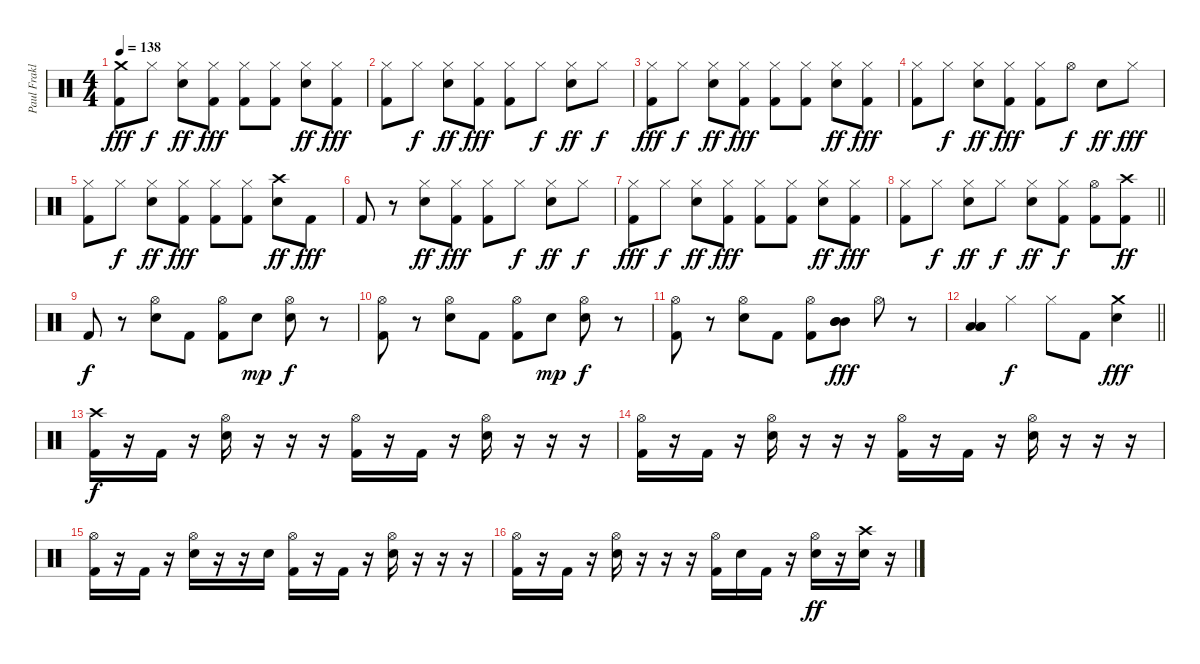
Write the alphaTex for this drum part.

\track ("Paul Fraklin Percusion" "Paul Frakl") {instrument percussion}
\staff {score}
\articulation defaults
\ts (4 4)
\tempo 138
\clef neutral
\ks c
("Crash medium (hit)" "Kick (hit) 2").8{dy fff} "Hi-Hat (closed)".8{dy f} ("Hi-Hat (closed)" "Electric Snare (hit)").8{dy ff} ("Hi-Hat (closed)" "Kick (hit) 2").8{dy fff} ("Hi-Hat (closed)" "Kick (hit) 2").8 ("Hi-Hat (closed)" "Kick (hit) 2").8 ("Hi-Hat (closed)" "Electric Snare (hit)").8{dy ff} ("Hi-Hat (closed)" "Kick (hit) 2").8{dy fff} |
("Hi-Hat (closed)" "Kick (hit) 2").8 "Hi-Hat (closed)".8{dy f} ("Hi-Hat (closed)" "Electric Snare (hit)").8{dy ff} ("Hi-Hat (closed)" "Kick (hit) 2").8{dy fff} ("Hi-Hat (closed)" "Kick (hit) 2").8 "Hi-Hat (closed)".8{dy f} ("Hi-Hat (closed)" "Electric Snare (hit)").8{dy ff} "Hi-Hat (closed)".8{dy f} |
("Hi-Hat (closed)" "Kick (hit) 2").8{dy fff} "Hi-Hat (closed)".8{dy f} ("Hi-Hat (closed)" "Electric Snare (hit)").8{dy ff} ("Hi-Hat (closed)" "Kick (hit) 2").8{dy fff} ("Hi-Hat (closed)" "Kick (hit) 2").8 ("Hi-Hat (closed)" "Kick (hit) 2").8 ("Hi-Hat (closed)" "Electric Snare (hit)").8{dy ff} ("Hi-Hat (closed)" "Kick (hit) 2").8{dy fff} |
("Hi-Hat (closed)" "Kick (hit) 2").8 "Hi-Hat (closed)".8{dy f} ("Hi-Hat (closed)" "Electric Snare (hit)").8{dy ff} ("Hi-Hat (closed)" "Kick (hit) 2").8{dy fff} ("Hi-Hat (closed)" "Kick (hit) 2").8 "Hi-Hat (open)".8{dy f} "Electric Snare (hit)".8{dy ff} "Hi-Hat (closed)".8{dy fff} |
("Hi-Hat (closed)" "Kick (hit) 2").8 "Hi-Hat (closed)".8{dy f} ("Hi-Hat (closed)" "Electric Snare (hit)").8{dy ff} ("Hi-Hat (closed)" "Kick (hit) 2").8{dy fff} ("Hi-Hat (closed)" "Kick (hit) 2").8 ("Hi-Hat (closed)" "Kick (hit) 2").8 ("Crash high (hit)" "Electric Snare (hit)").8{dy ff} "Kick (hit) 2".8{dy fff} |
"Kick (hit) 2".8 r.8 ("Hi-Hat (closed)" "Electric Snare (hit)").8{dy ff} ("Hi-Hat (closed)" "Kick (hit) 2").8{dy fff} ("Hi-Hat (closed)" "Kick (hit) 2").8 "Hi-Hat (closed)".8{dy f} ("Hi-Hat (closed)" "Electric Snare (hit)").8{dy ff} "Hi-Hat (closed)".8{dy f} |
("Hi-Hat (closed)" "Kick (hit) 2").8{dy fff} "Hi-Hat (closed)".8{dy f} ("Hi-Hat (closed)" "Electric Snare (hit)").8{dy ff} ("Hi-Hat (closed)" "Kick (hit) 2").8{dy fff} ("Hi-Hat (closed)" "Kick (hit) 2").8 ("Hi-Hat (closed)" "Kick (hit) 2").8 ("Hi-Hat (closed)" "Electric Snare (hit)").8{dy ff} ("Hi-Hat (closed)" "Kick (hit) 2").8{dy fff} |
\barLineRight lightlight
("Hi-Hat (closed)" "Kick (hit) 2").8 "Hi-Hat (closed)".8{dy f} ("Hi-Hat (closed)" "Electric Snare (hit)").8{dy ff} "Hi-Hat (closed)".8{dy f} ("Hi-Hat (closed)" "Electric Snare (hit)").8{dy ff} ("Hi-Hat (closed)" "Kick (hit) 2").8{dy f} ("Hi-Hat (open)" "Kick (hit) 2").8 ("Crash high (hit)" "Kick (hit) 2").8{dy ff} |
"Kick (hit) 2".8{dy f} r.8 ("Hi-Hat (open)" "Electric Snare (hit)").8 "Kick (hit) 2".8 ("Hi-Hat (open)" "Kick (hit) 2").8 "Electric Snare (hit)".8{dy mp} ("Hi-Hat (open)" "Electric Snare (hit)").8{dy f} r.8 |
("Hi-Hat (open)" "Kick (hit) 2").8 r.8 ("Hi-Hat (open)" "Electric Snare (hit)").8 "Kick (hit) 2".8 ("Hi-Hat (open)" "Kick (hit) 2").8 "Electric Snare (hit)".8{dy mp} ("Hi-Hat (open)" "Electric Snare (hit)").8{dy f} r.8 |
("Hi-Hat (open)" "Kick (hit) 2").8 r.8 ("Hi-Hat (open)" "Electric Snare (hit)").8 "Kick (hit) 2".8 ("Hi-Hat (open)" "Kick (hit) 2").8 ("Mid Tom (hit)" "Mid Tom (hit)" "Mid Tom (hit)").8{dy fff} "Hi-Hat (open)".8 r.8 |
\barLineRight lightlight
("Low Tom (hit)" "Low Tom (hit)" "Low Tom (hit)").4 "Hi-Hat (closed)".4{dy f} "Hi-Hat (closed)".8 "Kick (hit) 2".8 ("Crash medium (hit)" "Electric Snare (hit)").4{dy fff} |
("Crash high (hit)" "Kick (hit) 2").16{dy f} r.16 "Kick (hit) 2".16 r.16 ("Hi-Hat (open)" "Electric Snare (hit)").16 r.16 r.16 r.16 ("Hi-Hat (open)" "Kick (hit) 2").16 r.16 "Kick (hit) 2".16 r.16 ("Hi-Hat (open)" "Electric Snare (hit)").16 r.16 r.16 r.16 |
("Hi-Hat (open)" "Kick (hit) 2").16 r.16 "Kick (hit) 2".16 r.16 ("Hi-Hat (open)" "Electric Snare (hit)").16 r.16 r.16 r.16 ("Hi-Hat (open)" "Kick (hit) 2").16 r.16 "Kick (hit) 2".16 r.16 ("Hi-Hat (open)" "Electric Snare (hit)").16 r.16 r.16 r.16 |
("Hi-Hat (open)" "Kick (hit) 2").16 r.16 "Kick (hit) 2".16 r.16 ("Hi-Hat (open)" "Electric Snare (hit)").16 r.16 r.16 "Electric Snare (hit)".16 ("Hi-Hat (open)" "Kick (hit) 2").16 r.16 "Kick (hit) 2".16 r.16 ("Hi-Hat (open)" "Electric Snare (hit)").16 r.16 r.16 r.16 |
("Hi-Hat (open)" "Kick (hit) 2").16 r.16 "Kick (hit) 2".16 r.16 ("Hi-Hat (open)" "Electric Snare (hit)").16 r.16 r.16 r.16 ("Hi-Hat (open)" "Kick (hit) 2").16 "Electric Snare (hit)".16 "Kick (hit) 2".16 r.16 ("Hi-Hat (open)" "Electric Snare (hit)").16{dy ff} r.16 ("Crash high (hit)" "Electric Snare (hit)").16 r.16
